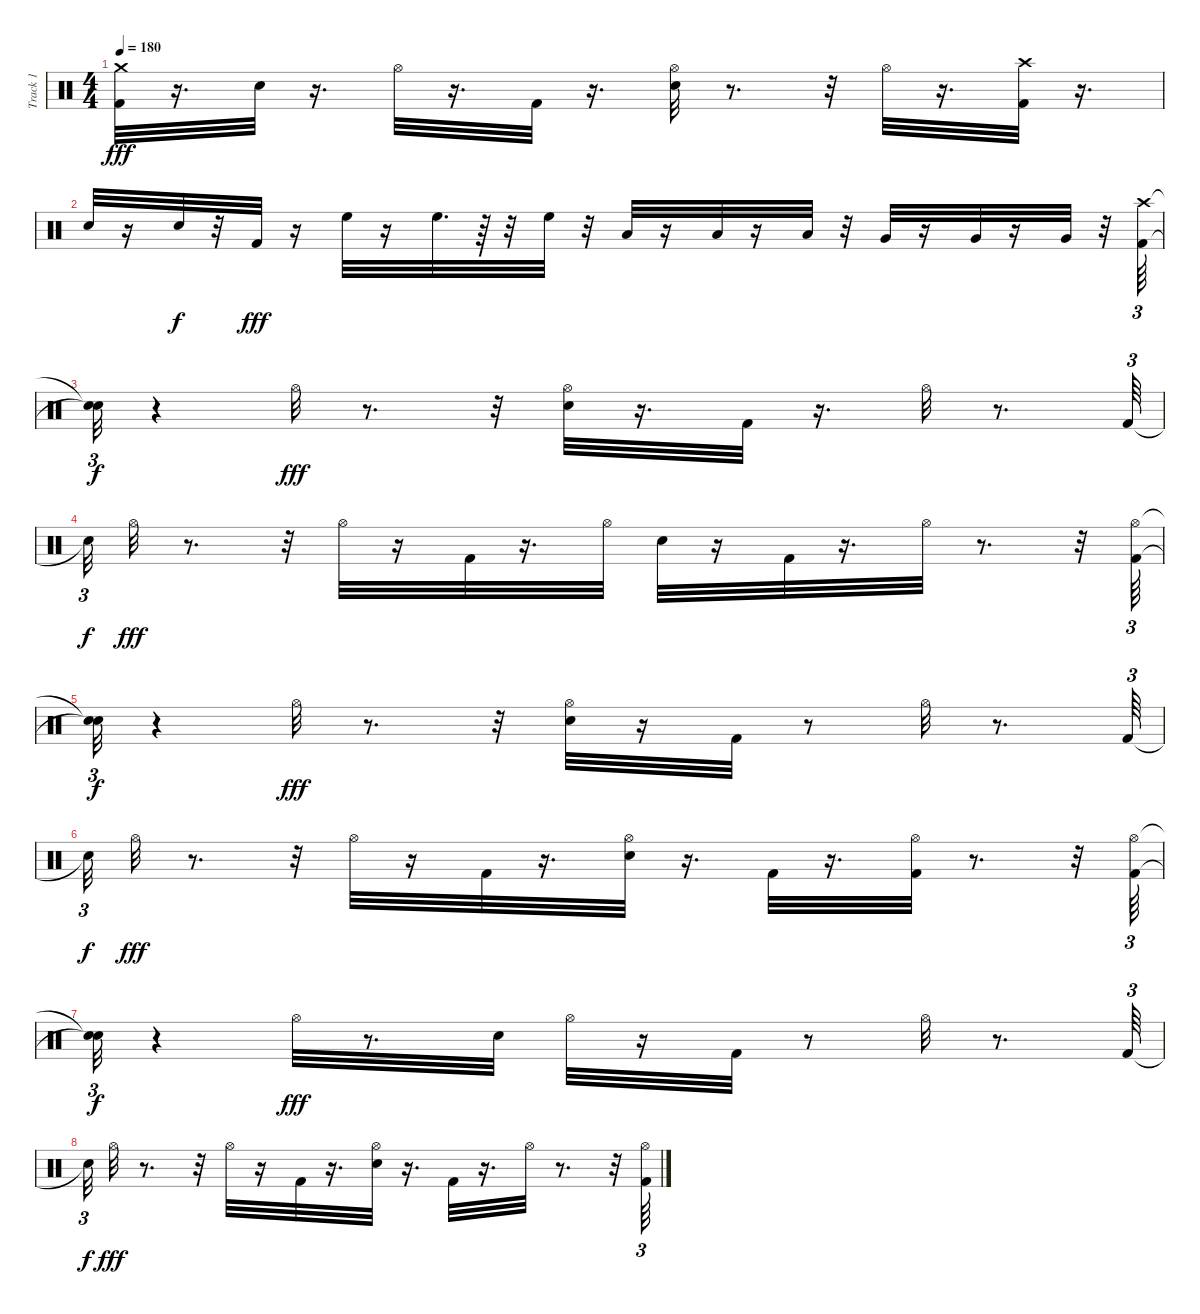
\track ("Track 1" "Track 1") {mute instrument percussion}
\staff {score}
\articulation defaults
\ts (4 4)
\tempo 180
\clef neutral
\ks c
("Kick (hit) 2" "Crash medium (hit)").32{dy fff} r.16{d} "Snare (hit) 2".32 r.16{d} "Hi-Hat (open)".32 r.16{d} "Kick (hit) 2".32 r.16{d} ("Hi-Hat (open)" "Electric Snare (hit)").32 r.8{d} r.32 "Hi-Hat (open)".32 r.16{d} ("Kick (hit) 2" "Crash high (hit)").32 r.16{d} |
"Electric Snare (hit)".32 r.16 "Snare (hit) 2".32{dy f} r.32 "Kick (hit) 2".32{dy fff} r.16 "High Floor Tom (hit)".32 r.16 "High Floor Tom (hit)".32{d} r.64 r.32 "High Floor Tom (hit)".32 r.32 "Low Tom (hit)".32 r.16 "Low Tom (hit)".32 r.16 "Low Tom (hit)".32 r.32 "Very Low Tom (hit)".32 r.16 "Very Low Tom (hit)".32 r.16 "Very Low Tom (hit)".32 r.32 ("Crash high (hit)" "Kick (hit) 2").64{tu (3 2)} |
("Snare (hit)"{t} "Snare (hit)"{t}).32{tu (3 2) dy f} r.4 "Hi-Hat (open)".32{dy fff} r.8{d} r.32 ("Hi-Hat (open)" "Electric Snare (hit)").32 r.16{d} "Kick (hit) 2".32 r.16{d} "Hi-Hat (open)".32 r.8{d} "Kick (hit) 2".64{tu (3 2)} |
"Snare (hit)"{t}.32{tu (3 2) dy f} "Hi-Hat (open)".32{dy fff} r.8{d} r.32 "Hi-Hat (open)".32 r.16 "Kick (hit) 2".32 r.16{d} "Hi-Hat (open)".32 "Electric Snare (hit)".32 r.16 "Kick (hit) 2".32 r.16{d} "Hi-Hat (open)".32 r.8{d} r.32 ("Hi-Hat (open)" "Kick (hit) 2").64{tu (3 2)} |
("Snare (hit)"{t} "Snare (hit)"{t}).32{tu (3 2) dy f} r.4 "Hi-Hat (open)".32{dy fff} r.8{d} r.32 ("Hi-Hat (open)" "Electric Snare (hit)").32 r.16 "Kick (hit) 2".32 r.8 "Hi-Hat (open)".32 r.8{d} "Kick (hit) 2".64{tu (3 2)} |
"Snare (hit)"{t}.32{tu (3 2) dy f} "Hi-Hat (open)".32{dy fff} r.8{d} r.32 "Hi-Hat (open)".32 r.16 "Kick (hit) 2".32 r.16{d} ("Hi-Hat (open)" "Electric Snare (hit)").32 r.16{d} "Kick (hit) 2".32 r.16{d} ("Kick (hit) 2" "Hi-Hat (open)").32 r.8{d} r.32 ("Kick (hit) 2" "Hi-Hat (open)").64{tu (3 2)} |
("Snare (hit)"{t} "Snare (hit)"{t}).32{tu (3 2) dy f} r.4 "Hi-Hat (open)".32{dy fff} r.8{d} "Electric Snare (hit)".32 "Hi-Hat (open)".32 r.16 "Kick (hit) 2".32 r.8 "Hi-Hat (open)".32 r.8{d} "Kick (hit) 2".64{tu (3 2)} |
"Snare (hit)"{t}.32{tu (3 2) dy f} "Hi-Hat (open)".32{dy fff} r.8{d} r.32 "Hi-Hat (open)".32 r.16 "Kick (hit) 2".32 r.16{d} ("Hi-Hat (open)" "Electric Snare (hit)").32 r.16{d} "Kick (hit) 2".32 r.16{d} "Hi-Hat (open)".32 r.8{d} r.32 ("Hi-Hat (open)" "Kick (hit) 2").64{tu (3 2)}
